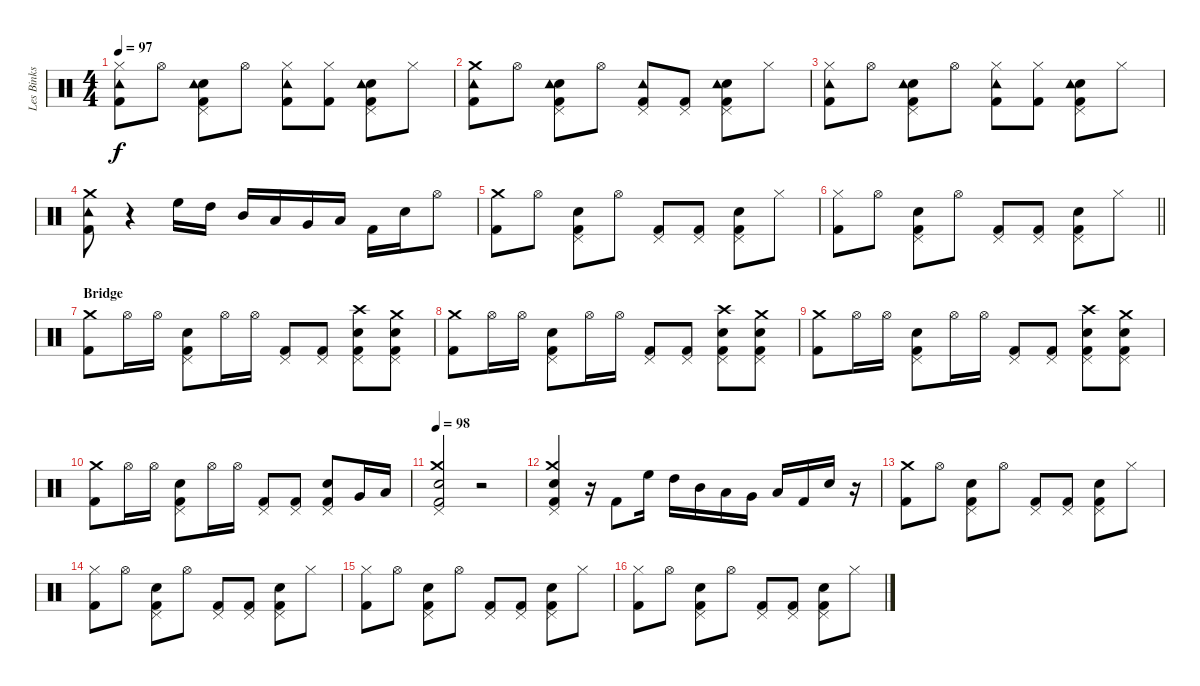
\track ("Les Binks" "Les Binks") {instrument percussion}
\staff {score}
\articulation defaults
\ts (4 4)
\tempo 97
\clef neutral
\ks c
("Hi-Hat (closed)" "Tambourine (hit)" "Kick (hit) 2").8{dy f} "Hi-Hat (open)".8 ("Pedal Hi-Hat (hit)" "Electric Snare (hit)" "Tambourine (hit)" "Kick (hit) 2").8 "Hi-Hat (open)".8 ("Hi-Hat (closed)" "Tambourine (hit)" "Kick (hit) 2").8 ("Hi-Hat (closed)" "Kick (hit) 2").8 ("Pedal Hi-Hat (hit)" "Electric Snare (hit)" "Tambourine (hit)" "Kick (hit) 2").8 "Hi-Hat (closed)".8 |
("Crash medium (hit)" "Tambourine (hit)" "Kick (hit) 2").8 "Hi-Hat (open)".8 ("Pedal Hi-Hat (hit)" "Electric Snare (hit)" "Tambourine (hit)" "Kick (hit) 2").8 "Hi-Hat (open)".8 ("Pedal Hi-Hat (hit)" "Tambourine (hit)" "Kick (hit) 2").8 ("Pedal Hi-Hat (hit)" "Kick (hit) 2").8 ("Pedal Hi-Hat (hit)" "Electric Snare (hit)" "Tambourine (hit)" "Kick (hit) 2").8 "Hi-Hat (closed)".8 |
("Hi-Hat (closed)" "Tambourine (hit)" "Kick (hit) 2").8 "Hi-Hat (open)".8 ("Pedal Hi-Hat (hit)" "Electric Snare (hit)" "Tambourine (hit)" "Kick (hit) 2").8 "Hi-Hat (open)".8 ("Hi-Hat (closed)" "Tambourine (hit)" "Kick (hit) 2").8 ("Hi-Hat (closed)" "Kick (hit) 2").8 ("Pedal Hi-Hat (hit)" "Electric Snare (hit)" "Tambourine (hit)" "Kick (hit) 2").8 "Hi-Hat (closed)".8 |
("Crash medium (hit)" "Tambourine (hit)" "Kick (hit) 2").8 r.4 "High Floor Tom (hit)".16 "High Tom (hit)".16 "Mid Tom (hit)".16 "Low Tom (hit)".16 "Very Low Tom (hit)".16 "Low Floor Tom (hit)".16 "Kick (hit) 2".16 "Snare (hit) 2".16 "Hi-Hat (open)".8 |
("Crash medium (hit)" "Kick (hit) 2").8 "Hi-Hat (open)".8 ("Pedal Hi-Hat (hit)" "Snare (hit) 2" "Kick (hit) 2").8 "Hi-Hat (open)".8 ("Pedal Hi-Hat (hit)" "Kick (hit) 2").8 ("Pedal Hi-Hat (hit)" "Kick (hit) 2").8 ("Pedal Hi-Hat (hit)" "Snare (hit) 2" "Kick (hit) 2").8 "Hi-Hat (closed)".8 |
\barLineRight lightlight
("Hi-Hat (closed)" "Kick (hit) 2").8 "Hi-Hat (open)".8 ("Pedal Hi-Hat (hit)" "Snare (hit) 2" "Kick (hit) 2").8 "Hi-Hat (open)".8 ("Pedal Hi-Hat (hit)" "Kick (hit) 2").8 ("Pedal Hi-Hat (hit)" "Kick (hit) 2").8 ("Pedal Hi-Hat (hit)" "Snare (hit) 2" "Kick (hit) 2").8 "Hi-Hat (closed)".8 |
\section ("" "Bridge")
("Crash medium (hit)" "Kick (hit) 2").8 "Hi-Hat (open)".16 "Hi-Hat (open)".16 ("Pedal Hi-Hat (hit)" "Snare (hit) 2" "Kick (hit) 2").8 "Hi-Hat (open)".16 "Hi-Hat (open)".16 ("Pedal Hi-Hat (hit)" "Kick (hit) 2").8 ("Pedal Hi-Hat (hit)" "Kick (hit) 2").8 ("Crash high (hit)" "Pedal Hi-Hat (hit)" "Snare (hit) 2" "Kick (hit) 2").8 ("Crash medium (hit)" "Pedal Hi-Hat (hit)" "Snare (hit) 2" "Kick (hit) 2").8 |
("Crash medium (hit)" "Kick (hit) 2").8 "Hi-Hat (open)".16 "Hi-Hat (open)".16 ("Pedal Hi-Hat (hit)" "Snare (hit) 2" "Kick (hit) 2").8 "Hi-Hat (open)".16 "Hi-Hat (open)".16 ("Pedal Hi-Hat (hit)" "Kick (hit) 2").8 ("Pedal Hi-Hat (hit)" "Kick (hit) 2").8 ("Crash high (hit)" "Pedal Hi-Hat (hit)" "Snare (hit) 2" "Kick (hit) 2").8 ("Crash medium (hit)" "Pedal Hi-Hat (hit)" "Snare (hit) 2" "Kick (hit) 2").8 |
("Crash medium (hit)" "Kick (hit) 2").8 "Hi-Hat (open)".16 "Hi-Hat (open)".16 ("Pedal Hi-Hat (hit)" "Snare (hit) 2" "Kick (hit) 2").8 "Hi-Hat (open)".16 "Hi-Hat (open)".16 ("Pedal Hi-Hat (hit)" "Kick (hit) 2").8 ("Pedal Hi-Hat (hit)" "Kick (hit) 2").8 ("Crash high (hit)" "Pedal Hi-Hat (hit)" "Snare (hit) 2" "Kick (hit) 2").8 ("Crash medium (hit)" "Pedal Hi-Hat (hit)" "Snare (hit) 2" "Kick (hit) 2").8 |
("Crash medium (hit)" "Kick (hit) 2").8 "Hi-Hat (open)".16 "Hi-Hat (open)".16 ("Pedal Hi-Hat (hit)" "Snare (hit) 2" "Kick (hit) 2").8 "Hi-Hat (open)".16 "Hi-Hat (open)".16 ("Pedal Hi-Hat (hit)" "Kick (hit) 2").8 ("Pedal Hi-Hat (hit)" "Kick (hit) 2").8 ("Pedal Hi-Hat (hit)" "Snare (hit) 2" "Kick (hit) 2").8 "Very Low Tom (hit)".16 "Low Floor Tom (hit)".16 |
\tempo 98
("Crash medium (hit)" "Pedal Hi-Hat (hit)" "Snare (hit) 2" "Kick (hit) 2").2 r.2 |
("Crash medium (hit)" "Pedal Hi-Hat (hit)" "Snare (hit) 2" "Kick (hit) 2").4 r.16 "Kick (hit) 2".8 "High Floor Tom (hit)".16 "High Tom (hit)".16 "Mid Tom (hit)".16 "Low Tom (hit)".16 "Very Low Tom (hit)".16 "Low Floor Tom (hit)".16 "Kick (hit) 2".16 "Snare (hit) 2".16 r.16 |
("Crash medium (hit)" "Kick (hit) 2").8 "Hi-Hat (open)".8 ("Pedal Hi-Hat (hit)" "Snare (hit) 2" "Kick (hit) 2").8 "Hi-Hat (open)".8 ("Pedal Hi-Hat (hit)" "Kick (hit) 2").8 ("Pedal Hi-Hat (hit)" "Kick (hit) 2").8 ("Pedal Hi-Hat (hit)" "Snare (hit) 2" "Kick (hit) 2").8 "Hi-Hat (closed)".8 |
("Hi-Hat (closed)" "Kick (hit) 2").8 "Hi-Hat (open)".8 ("Pedal Hi-Hat (hit)" "Snare (hit) 2" "Kick (hit) 2").8 "Hi-Hat (open)".8 ("Pedal Hi-Hat (hit)" "Kick (hit) 2").8 ("Pedal Hi-Hat (hit)" "Kick (hit) 2").8 ("Pedal Hi-Hat (hit)" "Snare (hit) 2" "Kick (hit) 2").8 "Hi-Hat (closed)".8 |
("Hi-Hat (closed)" "Kick (hit) 2").8 "Hi-Hat (open)".8 ("Pedal Hi-Hat (hit)" "Snare (hit) 2" "Kick (hit) 2").8 "Hi-Hat (open)".8 ("Pedal Hi-Hat (hit)" "Kick (hit) 2").8 ("Pedal Hi-Hat (hit)" "Kick (hit) 2").8 ("Pedal Hi-Hat (hit)" "Snare (hit) 2" "Kick (hit) 2").8 "Hi-Hat (closed)".8 |
("Hi-Hat (closed)" "Kick (hit) 2").8 "Hi-Hat (open)".8 ("Pedal Hi-Hat (hit)" "Snare (hit) 2" "Kick (hit) 2").8 "Hi-Hat (open)".8 ("Pedal Hi-Hat (hit)" "Kick (hit) 2").8 ("Pedal Hi-Hat (hit)" "Kick (hit) 2").8 ("Pedal Hi-Hat (hit)" "Snare (hit) 2" "Kick (hit) 2").8 "Hi-Hat (closed)".8
